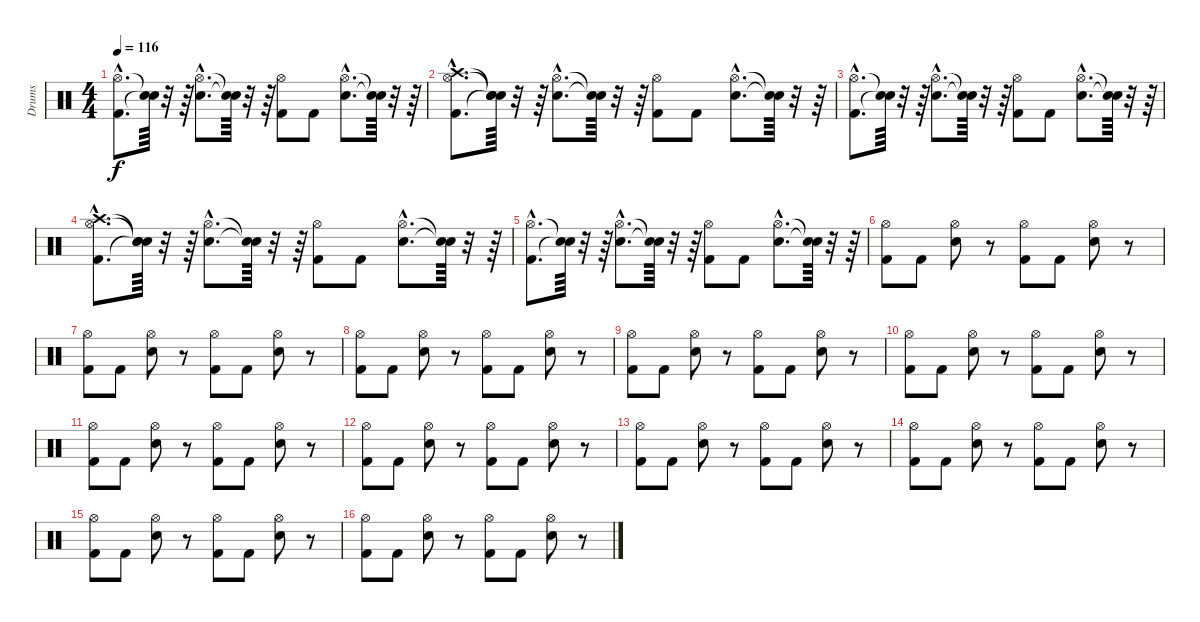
\track ("Drums" "Drums") {instrument percussion}
\staff {score}
\articulation defaults
\ts (4 4)
\tempo 116
\clef neutral
\ks c
("Kick (hit) 2"{hac} "Hi-Hat (open)"{hac}).8{d dy f} ("Snare (hit)"{t} "Snare (hit)"{t}).64 r.32 r.64 ("Snare (hit) 2"{hac} "Hi-Hat (open)"{hac}).8{d} ("Snare (hit)"{t} "Snare (hit)"{t}).64 r.32 r.64 ("Kick (hit) 2" "Hi-Hat (open)").8 "Kick (hit) 2".8 ("Snare (hit) 2"{hac} "Hi-Hat (open)"{hac}).8{d} ("Snare (hit)"{t} "Snare (hit)"{t}).64 r.32 r.64 |
("Kick (hit) 2"{hac} "Hi-Hat (open)"{hac} "Crash high (hit)"{hac}).8{d} ("Snare (hit)"{t} "Snare (hit)"{t} "Snare (hit)"{t}).64 r.32 r.64 ("Snare (hit) 2"{hac} "Hi-Hat (open)"{hac}).8{d} ("Snare (hit)"{t} "Snare (hit)"{t}).64 r.32 r.64 ("Kick (hit) 2" "Hi-Hat (open)").8 "Kick (hit) 2".8 ("Snare (hit) 2"{hac} "Hi-Hat (open)"{hac}).8{d} ("Snare (hit)"{t} "Snare (hit)"{t}).64 r.32 r.64 |
("Kick (hit) 2"{hac} "Hi-Hat (open)"{hac}).8{d} ("Snare (hit)"{t} "Snare (hit)"{t}).64 r.32 r.64 ("Snare (hit) 2"{hac} "Hi-Hat (open)"{hac}).8{d} ("Snare (hit)"{t} "Snare (hit)"{t}).64 r.32 r.64 ("Kick (hit) 2" "Hi-Hat (open)").8 "Kick (hit) 2".8 ("Snare (hit) 2"{hac} "Hi-Hat (open)"{hac}).8{d} ("Snare (hit)"{t} "Snare (hit)"{t}).64 r.32 r.64 |
("Kick (hit) 2"{hac} "Hi-Hat (open)"{hac} "Crash high (hit)"{hac}).8{d} ("Snare (hit)"{t} "Snare (hit)"{t} "Snare (hit)"{t}).64 r.32 r.64 ("Snare (hit) 2"{hac} "Hi-Hat (open)"{hac}).8{d} ("Snare (hit)"{t} "Snare (hit)"{t}).64 r.32 r.64 ("Kick (hit) 2" "Hi-Hat (open)").8 "Kick (hit) 2".8 ("Snare (hit) 2"{hac} "Hi-Hat (open)"{hac}).8{d} ("Snare (hit)"{t} "Snare (hit)"{t}).64 r.32 r.64 |
("Kick (hit) 2"{hac} "Hi-Hat (open)"{hac}).8{d} ("Snare (hit)"{t} "Snare (hit)"{t}).64 r.32 r.64 ("Snare (hit) 2"{hac} "Hi-Hat (open)"{hac}).8{d} ("Snare (hit)"{t} "Snare (hit)"{t}).64 r.32 r.64 ("Kick (hit) 2" "Hi-Hat (open)").8 "Kick (hit) 2".8 ("Snare (hit) 2"{hac} "Hi-Hat (open)"{hac}).8{d} ("Snare (hit)"{t} "Snare (hit)"{t}).64 r.32 r.64 |
("Kick (hit) 2" "Hi-Hat (open)").8 "Kick (hit) 2".8 ("Snare (hit) 2" "Hi-Hat (open)").8 r.8 ("Kick (hit) 2" "Hi-Hat (open)").8 "Kick (hit) 2".8 ("Snare (hit) 2" "Hi-Hat (open)").8 r.8 |
("Kick (hit) 2" "Hi-Hat (open)").8 "Kick (hit) 2".8 ("Snare (hit) 2" "Hi-Hat (open)").8 r.8 ("Kick (hit) 2" "Hi-Hat (open)").8 "Kick (hit) 2".8 ("Snare (hit) 2" "Hi-Hat (open)").8 r.8 |
("Kick (hit) 2" "Hi-Hat (open)").8 "Kick (hit) 2".8 ("Snare (hit) 2" "Hi-Hat (open)").8 r.8 ("Kick (hit) 2" "Hi-Hat (open)").8 "Kick (hit) 2".8 ("Snare (hit) 2" "Hi-Hat (open)").8 r.8 |
("Kick (hit) 2" "Hi-Hat (open)").8 "Kick (hit) 2".8 ("Snare (hit) 2" "Hi-Hat (open)").8 r.8 ("Kick (hit) 2" "Hi-Hat (open)").8 "Kick (hit) 2".8 ("Snare (hit) 2" "Hi-Hat (open)").8 r.8 |
("Kick (hit) 2" "Hi-Hat (open)").8 "Kick (hit) 2".8 ("Snare (hit) 2" "Hi-Hat (open)").8 r.8 ("Kick (hit) 2" "Hi-Hat (open)").8 "Kick (hit) 2".8 ("Snare (hit) 2" "Hi-Hat (open)").8 r.8 |
("Kick (hit) 2" "Hi-Hat (open)").8 "Kick (hit) 2".8 ("Snare (hit) 2" "Hi-Hat (open)").8 r.8 ("Kick (hit) 2" "Hi-Hat (open)").8 "Kick (hit) 2".8 ("Snare (hit) 2" "Hi-Hat (open)").8 r.8 |
("Kick (hit) 2" "Hi-Hat (open)").8 "Kick (hit) 2".8 ("Snare (hit) 2" "Hi-Hat (open)").8 r.8 ("Kick (hit) 2" "Hi-Hat (open)").8 "Kick (hit) 2".8 ("Snare (hit) 2" "Hi-Hat (open)").8 r.8 |
("Kick (hit) 2" "Hi-Hat (open)").8 "Kick (hit) 2".8 ("Snare (hit) 2" "Hi-Hat (open)").8 r.8 ("Kick (hit) 2" "Hi-Hat (open)").8 "Kick (hit) 2".8 ("Snare (hit) 2" "Hi-Hat (open)").8 r.8 |
("Kick (hit) 2" "Hi-Hat (open)").8 "Kick (hit) 2".8 ("Snare (hit) 2" "Hi-Hat (open)").8 r.8 ("Kick (hit) 2" "Hi-Hat (open)").8 "Kick (hit) 2".8 ("Snare (hit) 2" "Hi-Hat (open)").8 r.8 |
("Kick (hit) 2" "Hi-Hat (open)").8 "Kick (hit) 2".8 ("Snare (hit) 2" "Hi-Hat (open)").8 r.8 ("Kick (hit) 2" "Hi-Hat (open)").8 "Kick (hit) 2".8 ("Snare (hit) 2" "Hi-Hat (open)").8 r.8 |
("Kick (hit) 2" "Hi-Hat (open)").8 "Kick (hit) 2".8 ("Snare (hit) 2" "Hi-Hat (open)").8 r.8 ("Kick (hit) 2" "Hi-Hat (open)").8 "Kick (hit) 2".8 ("Snare (hit) 2" "Hi-Hat (open)").8 r.8
